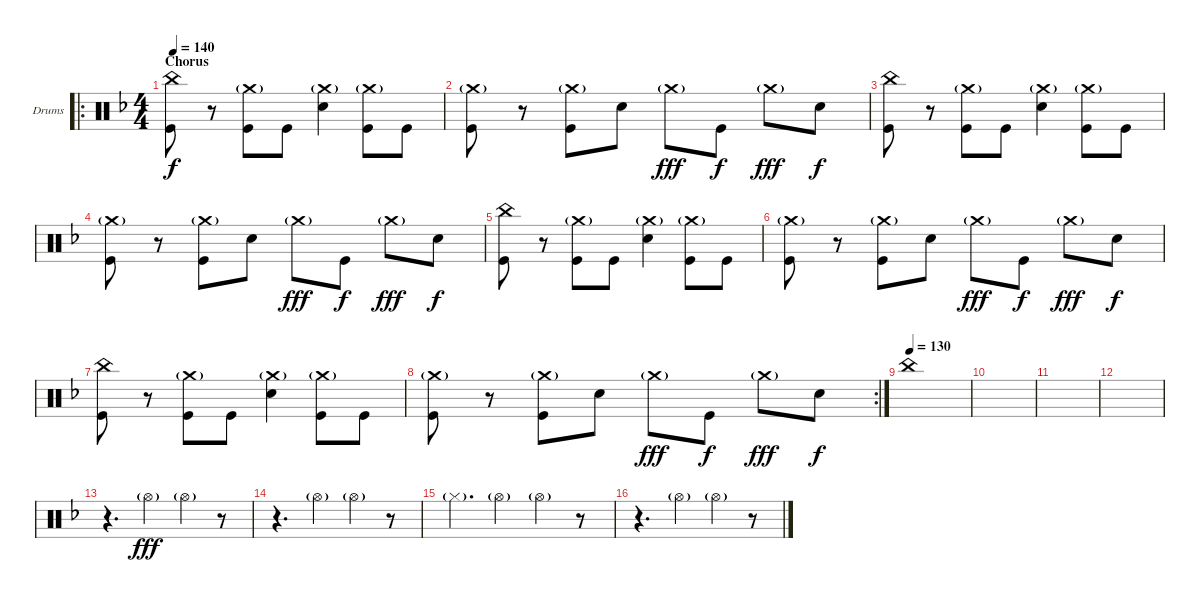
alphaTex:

\defaultSystemsLayout 4
\bracketExtendMode groupsimilarinstruments
\firstSystemTrackNameOrientation horizontal
\otherSystemsTrackNameOrientation horizontal
\track ("Mark" "Drums") {instrument percussion}
\staff {score}
\articulation defaults
\ro
\ts (4 4)
\section ("" "Chorus")
\tempo 140
\clef neutral
\scale
0.365591
\ks f
("China (hit)" "Kick (hit)").8{dy f} r.8 ("Crash medium (hit)"{g} "Kick (hit)").8 "Kick (hit)".8 ("Crash medium (hit)"{g} "Snare (hit) 2").4 ("Crash medium (hit)"{g} "Kick (hit)").8 "Kick (hit)".8 |
\scale
0.301075 ("Crash medium (hit)"{g} "Kick (hit)").8 r.8 ("Crash medium (hit)"{g} "Kick (hit)").8 "Snare (hit) 2".8 "Crash medium (hit)"{g}.8{dy fff} "Kick (hit)".8{dy f} "Crash medium (hit)"{g}.8{dy fff} "Snare (hit) 2".8{dy f} |
\scale
0.333333 ("China (hit)" "Kick (hit)").8 r.8 ("Crash medium (hit)"{g} "Kick (hit)").8 "Kick (hit)".8 ("Crash medium (hit)"{g} "Snare (hit) 2").4 ("Crash medium (hit)"{g} "Kick (hit)").8 "Kick (hit)".8 |
\scale
0.333333 ("Crash medium (hit)"{g} "Kick (hit)").8 r.8 ("Crash medium (hit)"{g} "Kick (hit)").8 "Snare (hit) 2".8 "Crash medium (hit)"{g}.8{dy fff} "Kick (hit)".8{dy f} "Crash medium (hit)"{g}.8{dy fff} "Snare (hit) 2".8{dy f} |
\scale
0.333333 ("China (hit)" "Kick (hit)").8 r.8 ("Crash medium (hit)"{g} "Kick (hit)").8 "Kick (hit)".8 ("Crash medium (hit)"{g} "Snare (hit) 2").4 ("Crash medium (hit)"{g} "Kick (hit)").8 "Kick (hit)".8 |
\scale
0.321839 ("Crash medium (hit)"{g} "Kick (hit)").8 r.8 ("Crash medium (hit)"{g} "Kick (hit)").8 "Snare (hit) 2".8 "Crash medium (hit)"{g}.8{dy fff} "Kick (hit)".8{dy f} "Crash medium (hit)"{g}.8{dy fff} "Snare (hit) 2".8{dy f} |
\scale
0.321839 ("China (hit)" "Kick (hit)").8 r.8 ("Crash medium (hit)"{g} "Kick (hit)").8 "Kick (hit)".8 ("Crash medium (hit)"{g} "Snare (hit) 2").4 ("Crash medium (hit)"{g} "Kick (hit)").8 "Kick (hit)".8 |
\rc 2
\scale
0.356322 ("Crash medium (hit)"{g} "Kick (hit)").8 r.8 ("Crash medium (hit)"{g} "Kick (hit)").8 "Snare (hit) 2".8 "Crash medium (hit)"{g}.8{dy fff} "Kick (hit)".8{dy f} "Crash medium (hit)"{g}.8{dy fff} "Snare (hit) 2".8{dy f} |
\tempo 130
\scale
0.333333 "China (hit)".1 |
\scale
0.333333 |
\scale
0.333333 |
\scale
0.333333 |
\scale
0.333333 r.4{d} "Hi-Hat (open)"{g}.4{dy fff} "Hi-Hat (open)"{g}.4 r.8 |
\scale
0.333333 r.4{d} "Hi-Hat (open)"{g}.4 "Hi-Hat (open)"{g}.4 r.8 |
\scale
0.311111 "Hi-Hat (closed)"{g}.4{d} "Hi-Hat (open)"{g}.4 "Hi-Hat (open)"{g}.4 r.8 |
\scale
0.311111 r.4{d} "Hi-Hat (open)"{g}.4 "Hi-Hat (open)"{g}.4 r.8
